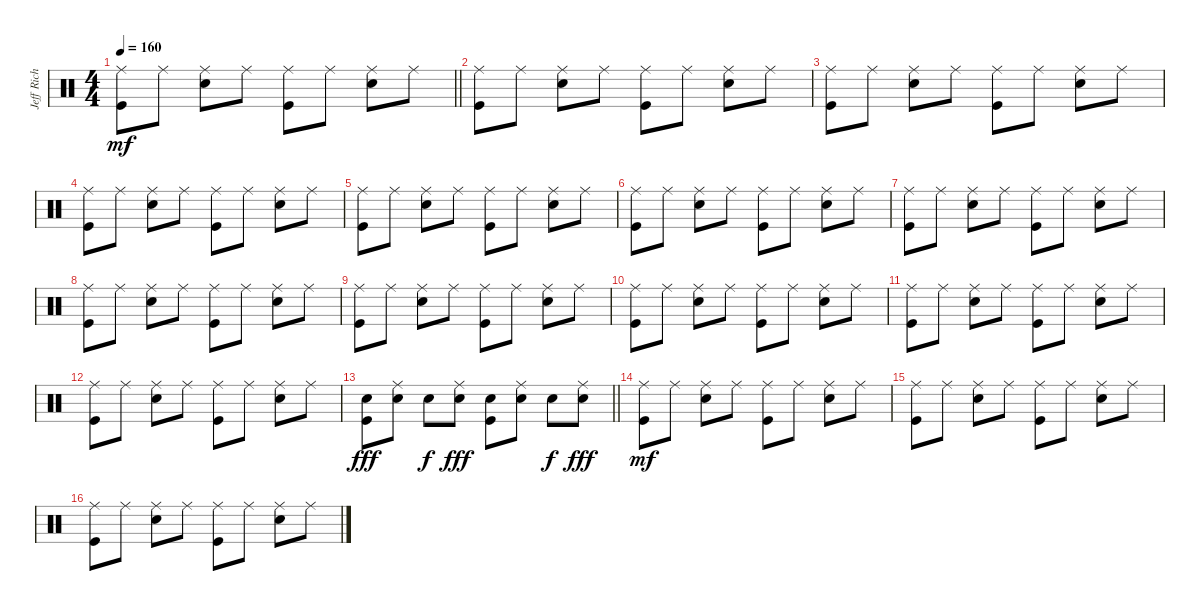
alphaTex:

\track ("Jeff Rich (Percussion)" "Jeff Rich ") {instrument percussion}
\staff {score}
\articulation defaults
\ts (4 4)
\tempo 160
\clef neutral
\barLineRight lightlight
\ks c
("Ride (middle)" "Kick (hit)").8{dy mf} "Ride (middle)".8 ("Ride (middle)" "Snare (hit) 2").8 "Ride (middle)".8 ("Ride (middle)" "Kick (hit)").8 "Ride (middle)".8 ("Ride (middle)" "Snare (hit) 2").8 "Ride (middle)".8 |
("Ride (middle)" "Kick (hit)").8 "Ride (middle)".8 ("Ride (middle)" "Snare (hit) 2").8 "Ride (middle)".8 ("Ride (middle)" "Kick (hit)").8 "Ride (middle)".8 ("Ride (middle)" "Snare (hit) 2").8 "Ride (middle)".8 |
("Ride (middle)" "Kick (hit)").8 "Ride (middle)".8 ("Ride (middle)" "Snare (hit) 2").8 "Ride (middle)".8 ("Ride (middle)" "Kick (hit)").8 "Ride (middle)".8 ("Ride (middle)" "Snare (hit) 2").8 "Ride (middle)".8 |
("Ride (middle)" "Kick (hit)").8 "Ride (middle)".8 ("Ride (middle)" "Snare (hit) 2").8 "Ride (middle)".8 ("Ride (middle)" "Kick (hit)").8 "Ride (middle)".8 ("Ride (middle)" "Snare (hit) 2").8 "Ride (middle)".8 |
("Ride (middle)" "Kick (hit)").8 "Ride (middle)".8 ("Ride (middle)" "Snare (hit) 2").8 "Ride (middle)".8 ("Ride (middle)" "Kick (hit)").8 "Ride (middle)".8 ("Ride (middle)" "Snare (hit) 2").8 "Ride (middle)".8 |
("Ride (middle)" "Kick (hit)").8 "Ride (middle)".8 ("Ride (middle)" "Snare (hit) 2").8 "Ride (middle)".8 ("Ride (middle)" "Kick (hit)").8 "Ride (middle)".8 ("Ride (middle)" "Snare (hit) 2").8 "Ride (middle)".8 |
("Ride (middle)" "Kick (hit)").8 "Ride (middle)".8 ("Ride (middle)" "Snare (hit) 2").8 "Ride (middle)".8 ("Ride (middle)" "Kick (hit)").8 "Ride (middle)".8 ("Ride (middle)" "Snare (hit) 2").8 "Ride (middle)".8 |
("Ride (middle)" "Kick (hit)").8 "Ride (middle)".8 ("Ride (middle)" "Snare (hit) 2").8 "Ride (middle)".8 ("Ride (middle)" "Kick (hit)").8 "Ride (middle)".8 ("Ride (middle)" "Snare (hit) 2").8 "Ride (middle)".8 |
("Ride (middle)" "Kick (hit)").8 "Ride (middle)".8 ("Ride (middle)" "Snare (hit) 2").8 "Ride (middle)".8 ("Ride (middle)" "Kick (hit)").8 "Ride (middle)".8 ("Ride (middle)" "Snare (hit) 2").8 "Ride (middle)".8 |
("Ride (middle)" "Kick (hit)").8 "Ride (middle)".8 ("Ride (middle)" "Snare (hit) 2").8 "Ride (middle)".8 ("Ride (middle)" "Kick (hit)").8 "Ride (middle)".8 ("Ride (middle)" "Snare (hit) 2").8 "Ride (middle)".8 |
("Ride (middle)" "Kick (hit)").8 "Ride (middle)".8 ("Ride (middle)" "Snare (hit) 2").8 "Ride (middle)".8 ("Ride (middle)" "Kick (hit)").8 "Ride (middle)".8 ("Ride (middle)" "Snare (hit) 2").8 "Ride (middle)".8 |
("Ride (middle)" "Kick (hit)").8 "Ride (middle)".8 ("Ride (middle)" "Snare (hit) 2").8 "Ride (middle)".8 ("Ride (middle)" "Kick (hit)").8 "Ride (middle)".8 ("Ride (middle)" "Snare (hit) 2").8 "Ride (middle)".8 |
\barLineRight lightlight
("Snare (hit) 2" "Kick (hit)").8{dy fff} ("Ride (middle)" "Snare (hit) 2").8 "Snare (hit) 2".8{dy f} ("Ride (middle)" "Snare (hit) 2").8{dy fff} ("Snare (hit) 2" "Kick (hit)").8 ("Ride (middle)" "Snare (hit) 2").8 "Snare (hit) 2".8{dy f} ("Ride (middle)" "Snare (hit) 2").8{dy fff} |
("Ride (middle)" "Kick (hit)").8{dy mf} "Ride (middle)".8 ("Ride (middle)" "Snare (hit) 2").8 "Ride (middle)".8 ("Ride (middle)" "Kick (hit)").8 "Ride (middle)".8 ("Ride (middle)" "Snare (hit) 2").8 "Ride (middle)".8 |
("Ride (middle)" "Kick (hit)").8 "Ride (middle)".8 ("Ride (middle)" "Snare (hit) 2").8 "Ride (middle)".8 ("Ride (middle)" "Kick (hit)").8 "Ride (middle)".8 ("Ride (middle)" "Snare (hit) 2").8 "Ride (middle)".8 |
("Ride (middle)" "Kick (hit)").8 "Ride (middle)".8 ("Ride (middle)" "Snare (hit) 2").8 "Ride (middle)".8 ("Ride (middle)" "Kick (hit)").8 "Ride (middle)".8 ("Ride (middle)" "Snare (hit) 2").8 "Ride (middle)".8
